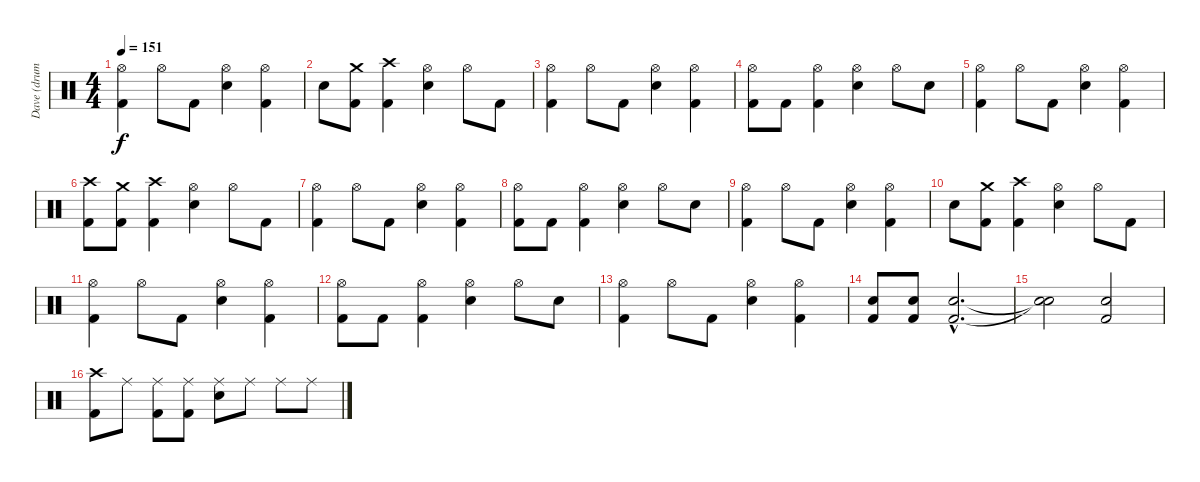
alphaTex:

\track ("Dave (drums)" "Dave (drum") {instrument percussion}
\staff {score}
\articulation defaults
\ts (4 4)
\tempo 151
\clef neutral
\ks c
("Hi-Hat (open)" "Kick (hit) 2").4{dy f} "Hi-Hat (open)".8 "Kick (hit) 2".8 ("Hi-Hat (open)" "Electric Snare (hit)").4 ("Hi-Hat (open)" "Kick (hit) 2").4 |
"Electric Snare (hit)".8 ("Crash medium (hit)" "Kick (hit) 2").8 ("Crash high (hit)" "Kick (hit) 2").4 ("Hi-Hat (open)" "Electric Snare (hit)").4 "Hi-Hat (open)".8 "Kick (hit) 2".8 |
("Hi-Hat (open)" "Kick (hit) 2").4 "Hi-Hat (open)".8 "Kick (hit) 2".8 ("Hi-Hat (open)" "Electric Snare (hit)").4 ("Hi-Hat (open)" "Kick (hit) 2").4 |
("Hi-Hat (open)" "Kick (hit) 2").8 "Kick (hit) 2".8 ("Hi-Hat (open)" "Kick (hit) 2").4 ("Hi-Hat (open)" "Electric Snare (hit)").4 "Hi-Hat (open)".8 "Electric Snare (hit)".8 |
("Hi-Hat (open)" "Kick (hit) 2").4 "Hi-Hat (open)".8 "Kick (hit) 2".8 ("Hi-Hat (open)" "Electric Snare (hit)").4 ("Hi-Hat (open)" "Kick (hit) 2").4 |
("Crash high (hit)" "Kick (hit) 2").8 ("Crash medium (hit)" "Kick (hit) 2").8 ("Crash high (hit)" "Kick (hit) 2").4 ("Hi-Hat (open)" "Electric Snare (hit)").4 "Hi-Hat (open)".8 "Kick (hit) 2".8 |
("Hi-Hat (open)" "Kick (hit) 2").4 "Hi-Hat (open)".8 "Kick (hit) 2".8 ("Hi-Hat (open)" "Electric Snare (hit)").4 ("Hi-Hat (open)" "Kick (hit) 2").4 |
("Hi-Hat (open)" "Kick (hit) 2").8 "Kick (hit) 2".8 ("Hi-Hat (open)" "Kick (hit) 2").4 ("Hi-Hat (open)" "Electric Snare (hit)").4 "Hi-Hat (open)".8 "Electric Snare (hit)".8 |
("Hi-Hat (open)" "Kick (hit) 2").4 "Hi-Hat (open)".8 "Kick (hit) 2".8 ("Hi-Hat (open)" "Electric Snare (hit)").4 ("Hi-Hat (open)" "Kick (hit) 2").4 |
"Electric Snare (hit)".8 ("Crash medium (hit)" "Kick (hit) 2").8 ("Crash high (hit)" "Kick (hit) 2").4 ("Hi-Hat (open)" "Electric Snare (hit)").4 "Hi-Hat (open)".8 "Kick (hit) 2".8 |
("Hi-Hat (open)" "Kick (hit) 2").4 "Hi-Hat (open)".8 "Kick (hit) 2".8 ("Hi-Hat (open)" "Electric Snare (hit)").4 ("Hi-Hat (open)" "Kick (hit) 2").4 |
("Hi-Hat (open)" "Kick (hit) 2").8 "Kick (hit) 2".8 ("Hi-Hat (open)" "Kick (hit) 2").4 ("Hi-Hat (open)" "Electric Snare (hit)").4 "Hi-Hat (open)".8 "Electric Snare (hit)".8 |
("Hi-Hat (open)" "Kick (hit) 2").4 "Hi-Hat (open)".8 "Kick (hit) 2".8 ("Hi-Hat (open)" "Electric Snare (hit)").4 ("Hi-Hat (open)" "Kick (hit) 2").4 |
("Kick (hit) 2" "Electric Snare (hit)").8 ("Kick (hit) 2" "Electric Snare (hit)").8 ("Kick (hit) 2"{hac} "Electric Snare (hit)"{hac}).2{d} |
("Snare (hit)"{t} "Snare (hit)"{t}).2 ("Kick (hit) 2" "Electric Snare (hit)").2 |
("Crash high (hit)" "Kick (hit) 2").8 "Ride (middle)".8 ("Kick (hit) 2" "Ride (middle)").8 ("Kick (hit) 2" "Ride (middle)").8 ("Electric Snare (hit)" "Ride (middle)").8 "Ride (middle)".8 "Ride (middle)".8 "Ride (middle)".8
